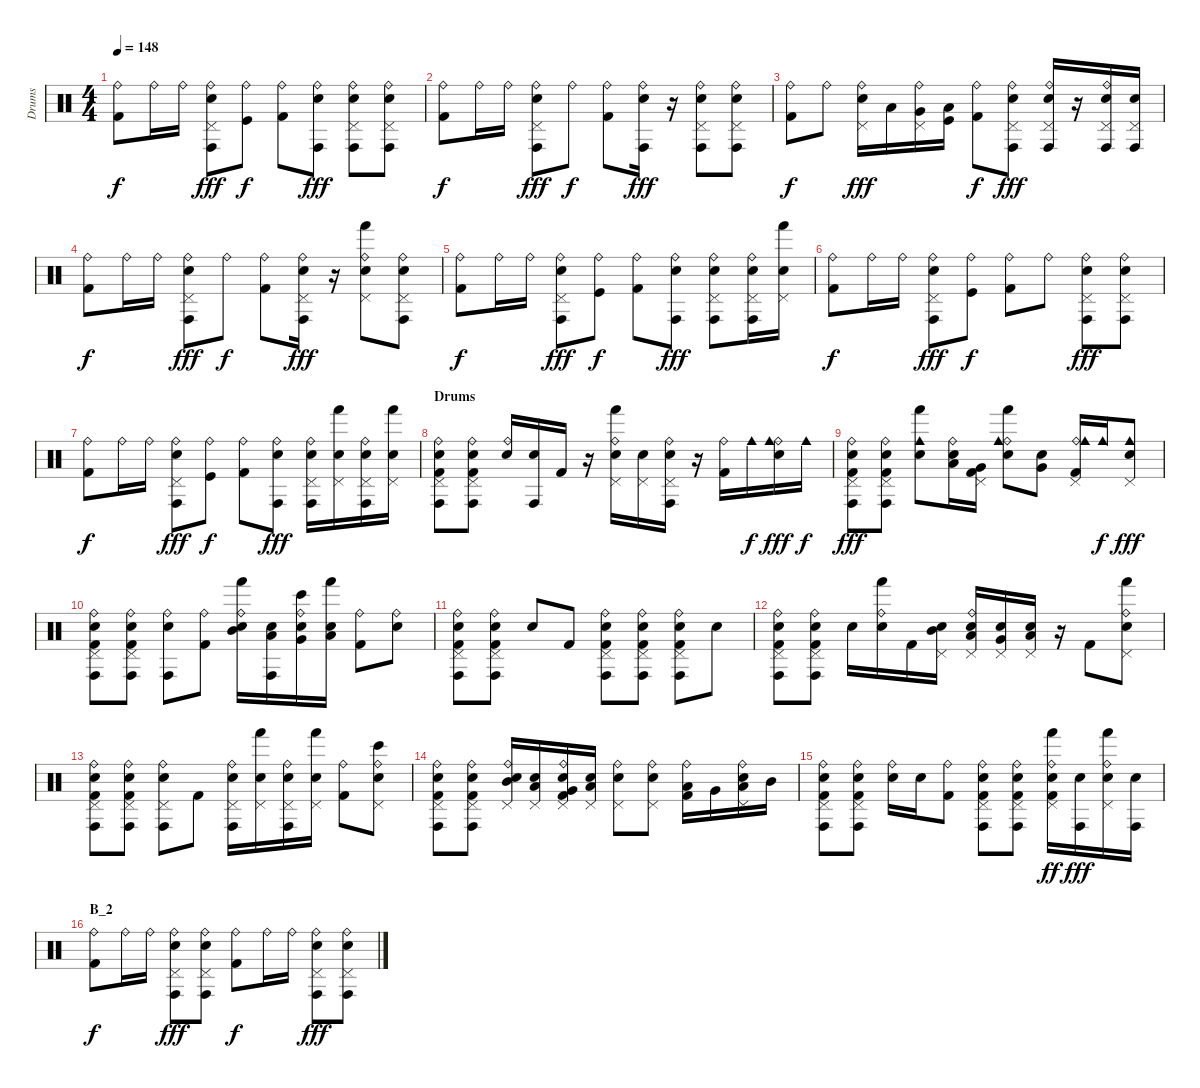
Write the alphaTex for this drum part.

\track ("Drums" "Drums") {instrument percussion}
\staff {score}
\articulation defaults
\ts (4 4)
\tempo 148
\clef neutral
\ks c
("Ride (bell)" "Kick (hit) 2").8{dy f} "Ride (bell)".16 "Ride (bell)".16 ("Ride (bell)" "Pedal Hi-Hat (hit)" "Conga high (hit)" "Electric Snare (hit)").8{dy fff} ("Ride (bell)" "Kick (hit)").8{dy f} ("Ride (bell)" "Kick (hit) 2").8 ("Ride (bell)" "Conga high (hit)" "Electric Snare (hit)").8{dy fff} ("Ride (bell)" "Pedal Hi-Hat (hit)" "Conga high (hit)" "Electric Snare (hit)").8 ("Ride (bell)" "Pedal Hi-Hat (hit)" "Conga high (hit)" "Electric Snare (hit)").8 |
("Ride (bell)" "Kick (hit) 2").8{dy f} "Ride (bell)".16 "Ride (bell)".16 ("Ride (bell)" "Pedal Hi-Hat (hit)" "Conga high (hit)" "Electric Snare (hit)").8{dy fff} "Ride (bell)".8{dy f} ("Ride (bell)" "Kick (hit) 2").8 ("Ride (bell)" "Conga high (hit)" "Electric Snare (hit)").16{dy fff} r.16 ("Ride (bell)" "Pedal Hi-Hat (hit)" "Conga high (hit)" "Electric Snare (hit)").8 ("Ride (bell)" "Pedal Hi-Hat (hit)" "Conga high (hit)" "Electric Snare (hit)").8 |
("Ride (bell)" "Kick (hit) 2").8{dy f} "Ride (bell)".8 ("Ride (bell)" "Pedal Hi-Hat (hit)" "Electric Snare (hit)").16{dy fff} "Low Tom (hit)".16 ("Ride (bell)" "Pedal Hi-Hat (hit)" "Very Low Tom (hit)").16 ("Low Floor Tom (hit)" "Kick (hit)").16 ("Ride (bell)" "Kick (hit) 2").8{dy f} ("Ride (bell)" "Pedal Hi-Hat (hit)" "Conga high (hit)" "Electric Snare (hit)").8{dy fff} ("Ride (bell)" "Pedal Hi-Hat (hit)" "Conga high (hit)" "Electric Snare (hit)").16 r.16 ("Ride (bell)" "Pedal Hi-Hat (hit)" "Conga high (hit)" "Electric Snare (hit)").16 ("Pedal Hi-Hat (hit)" "Conga high (hit)" "Electric Snare (hit)").16 |
("Ride (bell)" "Kick (hit) 2").8{dy f} "Ride (bell)".16 "Ride (bell)".16 ("Ride (bell)" "Pedal Hi-Hat (hit)" "Conga high (hit)" "Electric Snare (hit)").8{dy fff} "Ride (bell)".8{dy f} ("Ride (bell)" "Kick (hit) 2").8 ("Ride (bell)" "Pedal Hi-Hat (hit)" "Conga high (hit)" "Electric Snare (hit)").16{dy fff} r.16 ("Ride (bell)" "Pedal Hi-Hat (hit)" "Hand (hit)" "Electric Snare (hit)").8 ("Ride (bell)" "Pedal Hi-Hat (hit)" "Conga high (hit)" "Electric Snare (hit)").8 |
("Ride (bell)" "Kick (hit) 2").8{dy f} "Ride (bell)".16 "Ride (bell)".16 ("Ride (bell)" "Pedal Hi-Hat (hit)" "Conga high (hit)" "Electric Snare (hit)").8{dy fff} ("Ride (bell)" "Kick (hit)").8{dy f} ("Ride (bell)" "Kick (hit) 2").8 ("Ride (bell)" "Conga high (hit)" "Electric Snare (hit)").8{dy fff} ("Ride (bell)" "Pedal Hi-Hat (hit)" "Conga high (hit)" "Electric Snare (hit)").8 ("Ride (bell)" "Pedal Hi-Hat (hit)" "Conga high (hit)" "Electric Snare (hit)").16 ("Pedal Hi-Hat (hit)" "Hand (hit)" "Electric Snare (hit)").16 |
("Ride (bell)" "Kick (hit) 2").8{dy f} "Ride (bell)".16 "Ride (bell)".16 ("Ride (bell)" "Pedal Hi-Hat (hit)" "Conga high (hit)" "Electric Snare (hit)").8{dy fff} ("Ride (bell)" "Kick (hit)").8{dy f} ("Ride (bell)" "Kick (hit) 2").8 "Ride (bell)".8 ("Ride (bell)" "Pedal Hi-Hat (hit)" "Conga high (hit)" "Electric Snare (hit)").8{dy fff} ("Ride (bell)" "Pedal Hi-Hat (hit)" "Conga high (hit)" "Electric Snare (hit)").8 |
("Ride (bell)" "Kick (hit) 2").8{dy f} "Ride (bell)".16 "Ride (bell)".16 ("Ride (bell)" "Pedal Hi-Hat (hit)" "Conga high (hit)" "Electric Snare (hit)").8{dy fff} ("Ride (bell)" "Kick (hit)").8{dy f} ("Ride (bell)" "Kick (hit) 2").8 ("Ride (bell)" "Conga high (hit)" "Electric Snare (hit)").8{dy fff} ("Ride (bell)" "Pedal Hi-Hat (hit)" "Conga high (hit)" "Electric Snare (hit)").16 ("Pedal Hi-Hat (hit)" "Hand (hit)" "Electric Snare (hit)").16 ("Ride (bell)" "Pedal Hi-Hat (hit)" "Conga high (hit)" "Electric Snare (hit)").16 ("Pedal Hi-Hat (hit)" "Hand (hit)" "Electric Snare (hit)").16 |
\section ("" "Drums")
("Ride (bell)" "Pedal Hi-Hat (hit)" "Conga high (hit)" "Electric Snare (hit)" "Kick (hit) 2").8 ("Ride (bell)" "Pedal Hi-Hat (hit)" "Conga high (hit)" "Electric Snare (hit)" "Kick (hit) 2").8 ("Ride (bell)" "Electric Snare (hit)").16 ("Conga high (hit)" "Electric Snare (hit)").16 "Kick (hit) 2".16 r.16 ("Ride (bell)" "Pedal Hi-Hat (hit)" "Hand (hit)" "Electric Snare (hit)").16 ("Pedal Hi-Hat (hit)" "Electric Snare (hit)").16 ("Ride (bell)" "Pedal Hi-Hat (hit)" "Conga high (hit)" "Electric Snare (hit)").16 r.16 ("Ride (bell)" "Kick (hit) 2").16 "Cowbell medium (hit)".16{dy f} ("Ride (bell)" "Cowbell medium (hit)" "Electric Snare (hit)").16{dy fff} "Cowbell medium (hit)".16{dy f} |
("Ride (bell)" "Pedal Hi-Hat (hit)" "Conga high (hit)" "Electric Snare (hit)" "Kick (hit) 2").8{dy fff} ("Ride (bell)" "Pedal Hi-Hat (hit)" "Conga high (hit)" "Electric Snare (hit)" "Kick (hit) 2").8 ("Cowbell medium (hit)" "Hand (hit)" "Electric Snare (hit)").8 ("Ride (bell)" "Low Tom (hit)" "Electric Snare (hit)").16 ("Pedal Hi-Hat (hit)" "Very Low Tom (hit)" "Kick (hit) 2").16 ("Ride (bell)" "Cowbell medium (hit)" "Hand (hit)" "Electric Snare (hit)").8 ("Very Low Tom (hit)" "Electric Snare (hit)").8 ("Ride (bell)" "Pedal Hi-Hat (hit)" "Cowbell medium (hit)" "Kick (hit) 2").16 "Cowbell medium (hit)".16{dy f} ("Pedal Hi-Hat (hit)" "Cowbell medium (hit)" "Electric Snare (hit)").8{dy fff} |
("Ride (bell)" "Pedal Hi-Hat (hit)" "Conga high (hit)" "Electric Snare (hit)" "Kick (hit) 2").8 ("Ride (bell)" "Pedal Hi-Hat (hit)" "Conga high (hit)" "Electric Snare (hit)" "Kick (hit) 2").8 ("Ride (bell)" "Conga high (hit)" "Electric Snare (hit)").8 ("Ride (bell)" "Kick (hit) 2").8 ("Ride (bell)" "Mid Tom (hit)" "Hand (hit)" "Electric Snare (hit)").16 ("Low Tom (hit)" "Conga high (hit)" "Electric Snare (hit)").16 ("Ride (bell)" "Very Low Tom (hit)" "Bongo High (hit)" "Electric Snare (hit)").16 ("Low Floor Tom (hit)" "Hand (hit)" "Electric Snare (hit)").16 ("Ride (bell)" "Kick (hit) 2").8 ("Ride (bell)" "Electric Snare (hit)").8 |
("Ride (bell)" "Pedal Hi-Hat (hit)" "Conga high (hit)" "Electric Snare (hit)" "Kick (hit) 2").8 ("Ride (bell)" "Pedal Hi-Hat (hit)" "Conga high (hit)" "Electric Snare (hit)" "Kick (hit) 2").8 "Electric Snare (hit)".8 "Kick (hit) 2".8 ("Ride (bell)" "Pedal Hi-Hat (hit)" "Conga high (hit)" "Electric Snare (hit)" "Kick (hit) 2").8 ("Ride (bell)" "Pedal Hi-Hat (hit)" "Conga high (hit)" "Electric Snare (hit)" "Kick (hit) 2").8 ("Ride (bell)" "Pedal Hi-Hat (hit)" "Conga high (hit)" "Electric Snare (hit)" "Kick (hit) 2").8 "Electric Snare (hit)".8 |
("Ride (bell)" "Pedal Hi-Hat (hit)" "Conga high (hit)" "Electric Snare (hit)" "Kick (hit) 2").8 ("Ride (bell)" "Pedal Hi-Hat (hit)" "Conga high (hit)" "Electric Snare (hit)" "Kick (hit) 2").8 "Electric Snare (hit)".16 ("Ride (bell)" "Hand (hit)" "Electric Snare (hit)").16 "Kick (hit) 2".16 ("Pedal Hi-Hat (hit)" "Mid Tom (hit)" "Electric Snare (hit)").16 ("Ride (bell)" "Pedal Hi-Hat (hit)" "Low Tom (hit)" "Electric Snare (hit)").16 ("Pedal Hi-Hat (hit)" "Very Low Tom (hit)" "Electric Snare (hit)").16 ("Pedal Hi-Hat (hit)" "Low Floor Tom (hit)" "Electric Snare (hit)").16 r.16 "Kick (hit) 2".8 ("Ride (bell)" "Pedal Hi-Hat (hit)" "Hand (hit)" "Electric Snare (hit)").8 |
("Ride (bell)" "Pedal Hi-Hat (hit)" "Conga high (hit)" "Electric Snare (hit)" "Kick (hit) 2").8 ("Ride (bell)" "Pedal Hi-Hat (hit)" "Conga high (hit)" "Electric Snare (hit)" "Kick (hit) 2").8 ("Ride (bell)" "Pedal Hi-Hat (hit)" "Conga high (hit)" "Electric Snare (hit)").8 "Kick (hit) 2".8 ("Ride (bell)" "Pedal Hi-Hat (hit)" "Conga high (hit)" "Electric Snare (hit)").16 ("Pedal Hi-Hat (hit)" "Hand (hit)" "Electric Snare (hit)").16 ("Ride (bell)" "Pedal Hi-Hat (hit)" "Conga high (hit)" "Electric Snare (hit)").16 ("Pedal Hi-Hat (hit)" "Hand (hit)" "Electric Snare (hit)").16 ("Ride (bell)" "Kick (hit) 2").8 ("Ride (bell)" "Pedal Hi-Hat (hit)" "Bongo High (hit)" "Electric Snare (hit)").8 |
("Ride (bell)" "Pedal Hi-Hat (hit)" "Conga high (hit)" "Electric Snare (hit)" "Kick (hit) 2").8 ("Ride (bell)" "Pedal Hi-Hat (hit)" "Conga high (hit)" "Electric Snare (hit)" "Kick (hit) 2").8 ("Ride (bell)" "Pedal Hi-Hat (hit)" "Mid Tom (hit)" "Electric Snare (hit)").16 ("Pedal Hi-Hat (hit)" "Low Tom (hit)" "Electric Snare (hit)").16 ("Ride (bell)" "Pedal Hi-Hat (hit)" "Very Low Tom (hit)" "Electric Snare (hit)" "Kick (hit) 2").16 ("Pedal Hi-Hat (hit)" "Low Floor Tom (hit)" "Electric Snare (hit)").16 ("Ride (bell)" "Pedal Hi-Hat (hit)" "Electric Snare (hit)").8 ("Ride (bell)" "Pedal Hi-Hat (hit)" "Electric Snare (hit)").8 ("Ride (bell)" "Low Floor Tom (hit)" "Kick (hit) 2").16 "Very Low Tom (hit)".16 ("Ride (bell)" "Pedal Hi-Hat (hit)" "Low Tom (hit)" "Electric Snare (hit)").16 "Mid Tom (hit)".16 |
("Ride (bell)" "Pedal Hi-Hat (hit)" "Conga high (hit)" "Electric Snare (hit)" "Kick (hit) 2").8 ("Ride (bell)" "Pedal Hi-Hat (hit)" "Conga high (hit)" "Electric Snare (hit)" "Kick (hit) 2").8 ("Ride (bell)" "Electric Snare (hit)").16 "Electric Snare (hit)".16 ("Ride (bell)" "Kick (hit) 2").8 ("Ride (bell)" "Pedal Hi-Hat (hit)" "Conga high (hit)" "Electric Snare (hit)" "Kick (hit) 2").8 ("Ride (bell)" "Pedal Hi-Hat (hit)" "Conga high (hit)" "Electric Snare (hit)" "Kick (hit) 2").8 ("Ride (bell)" "Pedal Hi-Hat (hit)" "Hand (hit)" "Electric Snare (hit)" "Kick (hit) 2").16{dy ff} ("Conga high (hit)" "Electric Snare (hit)").16{dy fff} ("Ride (bell)" "Pedal Hi-Hat (hit)" "Hand (hit)" "Electric Snare (hit)").16 ("Conga high (hit)" "Electric Snare (hit)").16 |
\section ("" "B_2")
("Ride (bell)" "Kick (hit) 2").8{dy f} "Ride (bell)".16 "Ride (bell)".16 ("Ride (bell)" "Pedal Hi-Hat (hit)" "Conga high (hit)" "Electric Snare (hit)").8{dy fff} ("Ride (bell)" "Pedal Hi-Hat (hit)" "Conga high (hit)" "Electric Snare (hit)").8 ("Ride (bell)" "Kick (hit) 2").8{dy f} "Ride (bell)".16 "Ride (bell)".16 ("Ride (bell)" "Pedal Hi-Hat (hit)" "Conga high (hit)" "Electric Snare (hit)").8{dy fff} ("Ride (bell)" "Pedal Hi-Hat (hit)" "Conga high (hit)" "Electric Snare (hit)").8
